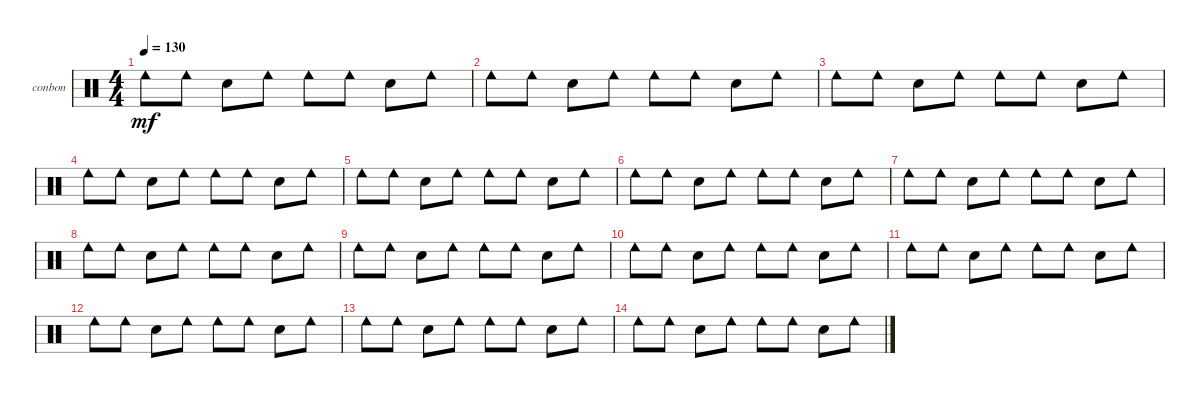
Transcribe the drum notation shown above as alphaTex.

\defaultSystemsLayout 4
\bracketExtendMode groupsimilarinstruments
\firstSystemTrackNameOrientation horizontal
\otherSystemsTrackNameOrientation horizontal
\track ("Addictional Drumkit" "conbon") {instrument percussion}
\staff {score}
\articulation defaults
\ts (4 4)
\tempo 130
\clef neutral
\scale
0.333333
\ks c "Cowbell low (hit)".8{dy mf} "Cowbell low (hit)".8 "Snare (hit) 2".8 "Cowbell low (hit)".8 "Cowbell low (hit)".8 "Cowbell low (hit)".8 "Snare (hit) 2".8 "Cowbell low (hit)".8
|
"Cowbell low (hit)".8 "Cowbell low (hit)".8 "Snare (hit) 2".8 "Cowbell low (hit)".8 "Cowbell low (hit)".8 "Cowbell low (hit)".8 "Snare (hit) 2".8 "Cowbell low (hit)".8 |
"Cowbell low (hit)".8 "Cowbell low (hit)".8 "Snare (hit) 2".8 "Cowbell low (hit)".8 "Cowbell low (hit)".8 "Cowbell low (hit)".8 "Snare (hit) 2".8 "Cowbell low (hit)".8 |
"Cowbell low (hit)".8 "Cowbell low (hit)".8 "Snare (hit) 2".8 "Cowbell low (hit)".8 "Cowbell low (hit)".8 "Cowbell low (hit)".8 "Snare (hit) 2".8 "Cowbell low (hit)".8 |
"Cowbell low (hit)".8 "Cowbell low (hit)".8 "Snare (hit) 2".8 "Cowbell low (hit)".8 "Cowbell low (hit)".8 "Cowbell low (hit)".8 "Snare (hit) 2".8 "Cowbell low (hit)".8 |
"Cowbell low (hit)".8 "Cowbell low (hit)".8 "Snare (hit) 2".8 "Cowbell low (hit)".8 "Cowbell low (hit)".8 "Cowbell low (hit)".8 "Snare (hit) 2".8 "Cowbell low (hit)".8 |
"Cowbell low (hit)".8 "Cowbell low (hit)".8 "Snare (hit) 2".8 "Cowbell low (hit)".8 "Cowbell low (hit)".8 "Cowbell low (hit)".8 "Snare (hit) 2".8 "Cowbell low (hit)".8 |
"Cowbell low (hit)".8 "Cowbell low (hit)".8 "Snare (hit) 2".8 "Cowbell low (hit)".8 "Cowbell low (hit)".8 "Cowbell low (hit)".8 "Snare (hit) 2".8 "Cowbell low (hit)".8 |
"Cowbell low (hit)".8 "Cowbell low (hit)".8 "Snare (hit) 2".8 "Cowbell low (hit)".8 "Cowbell low (hit)".8 "Cowbell low (hit)".8 "Snare (hit) 2".8 "Cowbell low (hit)".8 |
"Cowbell low (hit)".8 "Cowbell low (hit)".8 "Snare (hit) 2".8 "Cowbell low (hit)".8 "Cowbell low (hit)".8 "Cowbell low (hit)".8 "Snare (hit) 2".8 "Cowbell low (hit)".8 |
"Cowbell low (hit)".8 "Cowbell low (hit)".8 "Snare (hit) 2".8 "Cowbell low (hit)".8 "Cowbell low (hit)".8 "Cowbell low (hit)".8 "Snare (hit) 2".8 "Cowbell low (hit)".8 |
"Cowbell low (hit)".8 "Cowbell low (hit)".8 "Snare (hit) 2".8 "Cowbell low (hit)".8 "Cowbell low (hit)".8 "Cowbell low (hit)".8 "Snare (hit) 2".8 "Cowbell low (hit)".8 |
"Cowbell low (hit)".8 "Cowbell low (hit)".8 "Snare (hit) 2".8 "Cowbell low (hit)".8 "Cowbell low (hit)".8 "Cowbell low (hit)".8 "Snare (hit) 2".8 "Cowbell low (hit)".8 |
"Cowbell low (hit)".8 "Cowbell low (hit)".8 "Snare (hit) 2".8 "Cowbell low (hit)".8 "Cowbell low (hit)".8 "Cowbell low (hit)".8 "Snare (hit) 2".8 "Cowbell low (hit)".8
